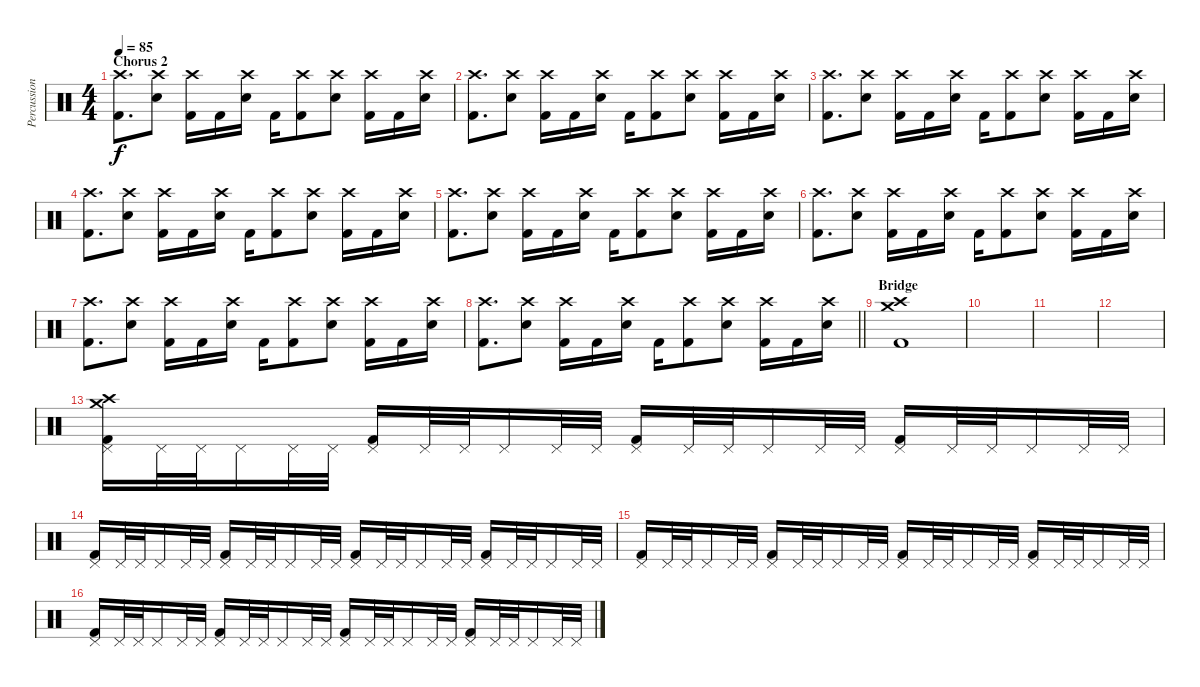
\track ("Percussion" "Percussion") {instrument percussion}
\staff {score}
\articulation defaults
\ts (4 4)
\section ("" "Chorus 2")
\tempo 85
\clef neutral
\ks c
("Crash high (hit)" "Kick (hit) 2").8{d dy f} ("Crash high (hit)" "Electric Snare (hit)").8 ("Crash high (hit)" "Kick (hit) 2").16 "Kick (hit) 2".16 ("Crash high (hit)" "Electric Snare (hit)").16 "Kick (hit) 2".16 ("Crash high (hit)" "Kick (hit) 2").8 ("Crash high (hit)" "Electric Snare (hit)").8 ("Crash high (hit)" "Kick (hit) 2").16 "Kick (hit) 2".16 ("Crash high (hit)" "Electric Snare (hit)").16 |
("Crash high (hit)" "Kick (hit) 2").8{d} ("Crash high (hit)" "Electric Snare (hit)").8 ("Crash high (hit)" "Kick (hit) 2").16 "Kick (hit) 2".16 ("Crash high (hit)" "Electric Snare (hit)").16 "Kick (hit) 2".16 ("Crash high (hit)" "Kick (hit) 2").8 ("Crash high (hit)" "Electric Snare (hit)").8 ("Crash high (hit)" "Kick (hit) 2").16 "Kick (hit) 2".16 ("Crash high (hit)" "Electric Snare (hit)").16 |
("Crash high (hit)" "Kick (hit) 2").8{d} ("Crash high (hit)" "Electric Snare (hit)").8 ("Crash high (hit)" "Kick (hit) 2").16 "Kick (hit) 2".16 ("Crash high (hit)" "Electric Snare (hit)").16 "Kick (hit) 2".16 ("Crash high (hit)" "Kick (hit) 2").8 ("Crash high (hit)" "Electric Snare (hit)").8 ("Crash high (hit)" "Kick (hit) 2").16 "Kick (hit) 2".16 ("Crash high (hit)" "Electric Snare (hit)").16 |
("Crash high (hit)" "Kick (hit) 2").8{d} ("Crash high (hit)" "Electric Snare (hit)").8 ("Crash high (hit)" "Kick (hit) 2").16 "Kick (hit) 2".16 ("Crash high (hit)" "Electric Snare (hit)").16 "Kick (hit) 2".16 ("Crash high (hit)" "Kick (hit) 2").8 ("Crash high (hit)" "Electric Snare (hit)").8 ("Crash high (hit)" "Kick (hit) 2").16 "Kick (hit) 2".16 ("Crash high (hit)" "Electric Snare (hit)").16 |
("Crash high (hit)" "Kick (hit) 2").8{d} ("Crash high (hit)" "Electric Snare (hit)").8 ("Crash high (hit)" "Kick (hit) 2").16 "Kick (hit) 2".16 ("Crash high (hit)" "Electric Snare (hit)").16 "Kick (hit) 2".16 ("Crash high (hit)" "Kick (hit) 2").8 ("Crash high (hit)" "Electric Snare (hit)").8 ("Crash high (hit)" "Kick (hit) 2").16 "Kick (hit) 2".16 ("Crash high (hit)" "Electric Snare (hit)").16 |
("Crash high (hit)" "Kick (hit) 2").8{d} ("Crash high (hit)" "Electric Snare (hit)").8 ("Crash high (hit)" "Kick (hit) 2").16 "Kick (hit) 2".16 ("Crash high (hit)" "Electric Snare (hit)").16 "Kick (hit) 2".16 ("Crash high (hit)" "Kick (hit) 2").8 ("Crash high (hit)" "Electric Snare (hit)").8 ("Crash high (hit)" "Kick (hit) 2").16 "Kick (hit) 2".16 ("Crash high (hit)" "Electric Snare (hit)").16 |
("Crash high (hit)" "Kick (hit) 2").8{d} ("Crash high (hit)" "Electric Snare (hit)").8 ("Crash high (hit)" "Kick (hit) 2").16 "Kick (hit) 2".16 ("Crash high (hit)" "Electric Snare (hit)").16 "Kick (hit) 2".16 ("Crash high (hit)" "Kick (hit) 2").8 ("Crash high (hit)" "Electric Snare (hit)").8 ("Crash high (hit)" "Kick (hit) 2").16 "Kick (hit) 2".16 ("Crash high (hit)" "Electric Snare (hit)").16 |
\barLineRight lightlight
("Crash high (hit)" "Kick (hit) 2").8{d} ("Crash high (hit)" "Electric Snare (hit)").8 ("Crash high (hit)" "Kick (hit) 2").16 "Kick (hit) 2".16 ("Crash high (hit)" "Electric Snare (hit)").16 "Kick (hit) 2".16 ("Crash high (hit)" "Kick (hit) 2").8 ("Crash high (hit)" "Electric Snare (hit)").8 ("Crash high (hit)" "Kick (hit) 2").16 "Kick (hit) 2".16 ("Crash high (hit)" "Electric Snare (hit)").16 |
\section ("" "Bridge")
("Crash medium (hit)" "Crash high (hit)" "Kick (hit) 2").1 |
|
|
|
("Pedal Hi-Hat (hit)" "Crash medium (hit)" "Crash high (hit)" "Kick (hit) 2").16 "Pedal Hi-Hat (hit)".32 "Pedal Hi-Hat (hit)".32 "Pedal Hi-Hat (hit)".16 "Pedal Hi-Hat (hit)".32 "Pedal Hi-Hat (hit)".32 ("Pedal Hi-Hat (hit)" "Kick (hit) 2").16 "Pedal Hi-Hat (hit)".32 "Pedal Hi-Hat (hit)".32 "Pedal Hi-Hat (hit)".16 "Pedal Hi-Hat (hit)".32 "Pedal Hi-Hat (hit)".32 ("Pedal Hi-Hat (hit)" "Kick (hit) 2").16 "Pedal Hi-Hat (hit)".32 "Pedal Hi-Hat (hit)".32 "Pedal Hi-Hat (hit)".16 "Pedal Hi-Hat (hit)".32 "Pedal Hi-Hat (hit)".32 ("Pedal Hi-Hat (hit)" "Kick (hit) 2").16 "Pedal Hi-Hat (hit)".32 "Pedal Hi-Hat (hit)".32 "Pedal Hi-Hat (hit)".16 "Pedal Hi-Hat (hit)".32 "Pedal Hi-Hat (hit)".32 |
("Pedal Hi-Hat (hit)" "Kick (hit) 2").16 "Pedal Hi-Hat (hit)".32 "Pedal Hi-Hat (hit)".32 "Pedal Hi-Hat (hit)".16 "Pedal Hi-Hat (hit)".32 "Pedal Hi-Hat (hit)".32 ("Pedal Hi-Hat (hit)" "Kick (hit) 2").16 "Pedal Hi-Hat (hit)".32 "Pedal Hi-Hat (hit)".32 "Pedal Hi-Hat (hit)".16 "Pedal Hi-Hat (hit)".32 "Pedal Hi-Hat (hit)".32 ("Pedal Hi-Hat (hit)" "Kick (hit) 2").16 "Pedal Hi-Hat (hit)".32 "Pedal Hi-Hat (hit)".32 "Pedal Hi-Hat (hit)".16 "Pedal Hi-Hat (hit)".32 "Pedal Hi-Hat (hit)".32 ("Pedal Hi-Hat (hit)" "Kick (hit) 2").16 "Pedal Hi-Hat (hit)".32 "Pedal Hi-Hat (hit)".32 "Pedal Hi-Hat (hit)".16 "Pedal Hi-Hat (hit)".32 "Pedal Hi-Hat (hit)".32 |
("Pedal Hi-Hat (hit)" "Kick (hit) 2").16 "Pedal Hi-Hat (hit)".32 "Pedal Hi-Hat (hit)".32 "Pedal Hi-Hat (hit)".16 "Pedal Hi-Hat (hit)".32 "Pedal Hi-Hat (hit)".32 ("Pedal Hi-Hat (hit)" "Kick (hit) 2").16 "Pedal Hi-Hat (hit)".32 "Pedal Hi-Hat (hit)".32 "Pedal Hi-Hat (hit)".16 "Pedal Hi-Hat (hit)".32 "Pedal Hi-Hat (hit)".32 ("Pedal Hi-Hat (hit)" "Kick (hit) 2").16 "Pedal Hi-Hat (hit)".32 "Pedal Hi-Hat (hit)".32 "Pedal Hi-Hat (hit)".16 "Pedal Hi-Hat (hit)".32 "Pedal Hi-Hat (hit)".32 ("Pedal Hi-Hat (hit)" "Kick (hit) 2").16 "Pedal Hi-Hat (hit)".32 "Pedal Hi-Hat (hit)".32 "Pedal Hi-Hat (hit)".16 "Pedal Hi-Hat (hit)".32 "Pedal Hi-Hat (hit)".32 |
("Pedal Hi-Hat (hit)" "Kick (hit) 2").16 "Pedal Hi-Hat (hit)".32 "Pedal Hi-Hat (hit)".32 "Pedal Hi-Hat (hit)".16 "Pedal Hi-Hat (hit)".32 "Pedal Hi-Hat (hit)".32 ("Pedal Hi-Hat (hit)" "Kick (hit) 2").16 "Pedal Hi-Hat (hit)".32 "Pedal Hi-Hat (hit)".32 "Pedal Hi-Hat (hit)".16 "Pedal Hi-Hat (hit)".32 "Pedal Hi-Hat (hit)".32 ("Pedal Hi-Hat (hit)" "Kick (hit) 2").16 "Pedal Hi-Hat (hit)".32 "Pedal Hi-Hat (hit)".32 "Pedal Hi-Hat (hit)".16 "Pedal Hi-Hat (hit)".32 "Pedal Hi-Hat (hit)".32 ("Pedal Hi-Hat (hit)" "Kick (hit) 2").16 "Pedal Hi-Hat (hit)".32 "Pedal Hi-Hat (hit)".32 "Pedal Hi-Hat (hit)".16 "Pedal Hi-Hat (hit)".32 "Pedal Hi-Hat (hit)".32
